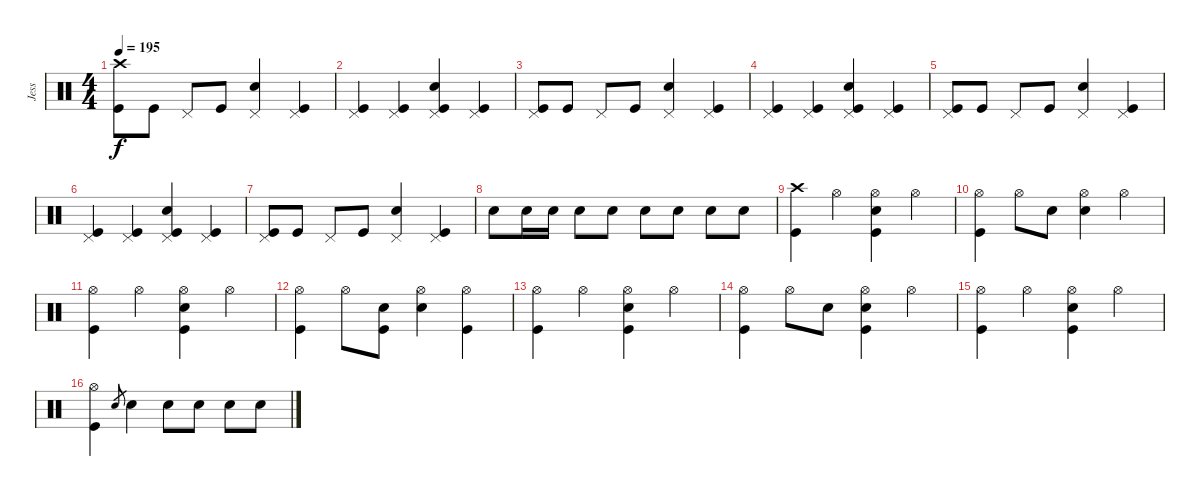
\track ("Jess" "Jess") {instrument percussion}
\staff {score}
\articulation defaults
\ts (4 4)
\tempo 195
\clef neutral
\ks c
("Crash high (hit)" "Kick (hit)").8{dy f} "Kick (hit)".8 "Pedal Hi-Hat (hit)".8 "Kick (hit)".8 ("Pedal Hi-Hat (hit)" "Electric Snare (hit)").4 ("Pedal Hi-Hat (hit)" "Kick (hit)").4 |
("Pedal Hi-Hat (hit)" "Kick (hit)").4 ("Pedal Hi-Hat (hit)" "Kick (hit)").4 ("Pedal Hi-Hat (hit)" "Electric Snare (hit)" "Kick (hit)").4 ("Pedal Hi-Hat (hit)" "Kick (hit)").4 |
("Pedal Hi-Hat (hit)" "Kick (hit)").8 "Kick (hit)".8 "Pedal Hi-Hat (hit)".8 "Kick (hit)".8 ("Pedal Hi-Hat (hit)" "Electric Snare (hit)").4 ("Pedal Hi-Hat (hit)" "Kick (hit)").4 |
("Pedal Hi-Hat (hit)" "Kick (hit)").4 ("Pedal Hi-Hat (hit)" "Kick (hit)").4 ("Pedal Hi-Hat (hit)" "Electric Snare (hit)" "Kick (hit)").4 ("Pedal Hi-Hat (hit)" "Kick (hit)").4 |
("Pedal Hi-Hat (hit)" "Kick (hit)").8 "Kick (hit)".8 "Pedal Hi-Hat (hit)".8 "Kick (hit)".8 ("Pedal Hi-Hat (hit)" "Electric Snare (hit)").4 ("Pedal Hi-Hat (hit)" "Kick (hit)").4 |
("Pedal Hi-Hat (hit)" "Kick (hit)").4 ("Pedal Hi-Hat (hit)" "Kick (hit)").4 ("Pedal Hi-Hat (hit)" "Electric Snare (hit)" "Kick (hit)").4 ("Pedal Hi-Hat (hit)" "Kick (hit)").4 |
("Pedal Hi-Hat (hit)" "Kick (hit)").8 "Kick (hit)".8 "Pedal Hi-Hat (hit)".8 "Kick (hit)".8 ("Pedal Hi-Hat (hit)" "Electric Snare (hit)").4 ("Pedal Hi-Hat (hit)" "Kick (hit)").4 |
"Electric Snare (hit)".8 "Electric Snare (hit)".16 "Electric Snare (hit)".16 "Electric Snare (hit)".8 "Electric Snare (hit)".8 "Electric Snare (hit)".8 "Electric Snare (hit)".8 "Electric Snare (hit)".8 "Electric Snare (hit)".8 |
("Crash high (hit)" "Kick (hit)").4 "Hi-Hat (open)".4 ("Hi-Hat (open)" "Electric Snare (hit)" "Kick (hit)").4 "Hi-Hat (open)".4 |
("Hi-Hat (open)" "Kick (hit)").4 "Hi-Hat (open)".8 "Electric Snare (hit)".8 ("Hi-Hat (open)" "Electric Snare (hit)").4 "Hi-Hat (open)".4 |
("Hi-Hat (open)" "Kick (hit)").4 "Hi-Hat (open)".4 ("Hi-Hat (open)" "Electric Snare (hit)" "Kick (hit)").4 "Hi-Hat (open)".4 |
("Hi-Hat (open)" "Kick (hit)").4 "Hi-Hat (open)".8 ("Electric Snare (hit)" "Kick (hit)").8 ("Hi-Hat (open)" "Electric Snare (hit)").4 ("Hi-Hat (open)" "Kick (hit)").4 |
("Hi-Hat (open)" "Kick (hit)").4 "Hi-Hat (open)".4 ("Hi-Hat (open)" "Electric Snare (hit)" "Kick (hit)").4 "Hi-Hat (open)".4 |
("Hi-Hat (open)" "Kick (hit)").4 "Hi-Hat (open)".8 "Electric Snare (hit)".8 ("Hi-Hat (open)" "Electric Snare (hit)" "Kick (hit)").4 "Hi-Hat (open)".4 |
("Hi-Hat (open)" "Kick (hit)").4 "Hi-Hat (open)".4 ("Hi-Hat (open)" "Electric Snare (hit)" "Kick (hit)").4 "Hi-Hat (open)".4 |
("Hi-Hat (open)" "Kick (hit)").4 "Electric Snare (hit)".8{gr} "Electric Snare (hit)".4 "Electric Snare (hit)".8 "Electric Snare (hit)".8 "Electric Snare (hit)".8 "Electric Snare (hit)".8
